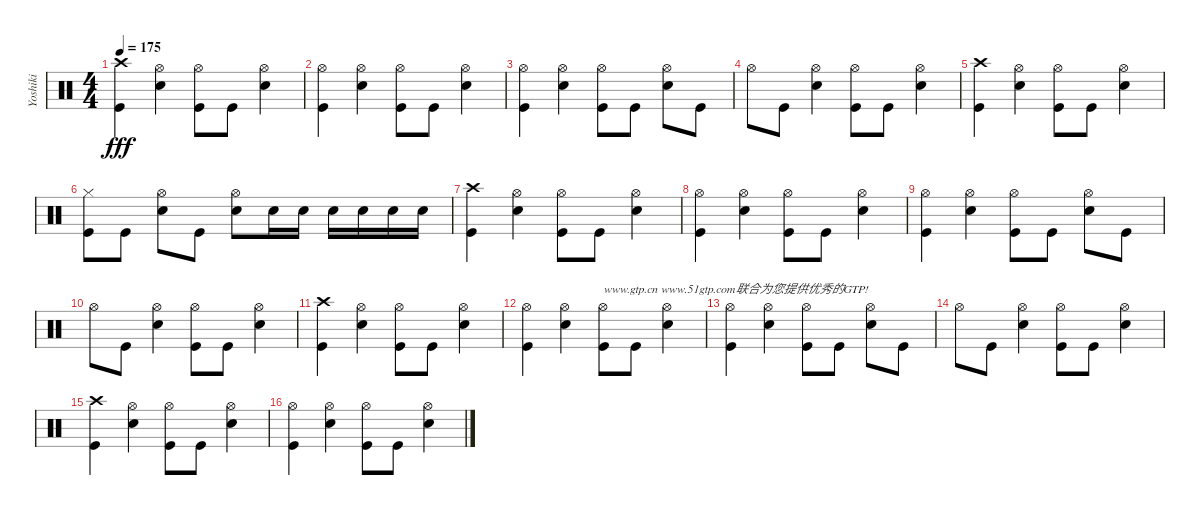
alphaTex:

\track ("Yoshiki" "Yoshiki") {instrument percussion}
\staff {score}
\articulation defaults
\ts (4 4)
\tempo 175
\clef neutral
\ks c
("Crash high (hit)" "Kick (hit)").4{dy fff} ("Hi-Hat (open)" "Snare (hit) 2").4 ("Hi-Hat (open)" "Kick (hit)").8 "Kick (hit)".8 ("Hi-Hat (open)" "Snare (hit) 2").4 |
("Hi-Hat (open)" "Kick (hit)").4 ("Hi-Hat (open)" "Snare (hit) 2").4 ("Hi-Hat (open)" "Kick (hit)").8 "Kick (hit)".8 ("Hi-Hat (open)" "Snare (hit) 2").4 |
("Hi-Hat (open)" "Kick (hit)").4 ("Hi-Hat (open)" "Snare (hit) 2").4 ("Hi-Hat (open)" "Kick (hit)").8 "Kick (hit)".8 ("Hi-Hat (open)" "Snare (hit) 2").8 "Kick (hit)".8 |
"Hi-Hat (open)".8 "Kick (hit)".8 ("Hi-Hat (open)" "Snare (hit) 2").4 ("Hi-Hat (open)" "Kick (hit)").8 "Kick (hit)".8 ("Hi-Hat (open)" "Snare (hit) 2").4 |
("Crash high (hit)" "Kick (hit)").4 ("Hi-Hat (open)" "Snare (hit) 2").4 ("Hi-Hat (open)" "Kick (hit)").8 "Kick (hit)".8 ("Hi-Hat (open)" "Snare (hit) 2").4 |
("Hi-Hat (closed)" "Kick (hit)").8 "Kick (hit)".8 ("Hi-Hat (open)" "Snare (hit) 2").8 "Kick (hit)".8 ("Hi-Hat (open)" "Snare (hit) 2").8 "Snare (hit) 2".16 "Snare (hit) 2".16 "Snare (hit) 2".16 "Snare (hit) 2".16 "Snare (hit) 2".16 "Snare (hit) 2".16 |
("Crash high (hit)" "Kick (hit)").4 ("Hi-Hat (open)" "Snare (hit) 2").4 ("Hi-Hat (open)" "Kick (hit)").8 "Kick (hit)".8 ("Hi-Hat (open)" "Snare (hit) 2").4 |
("Hi-Hat (open)" "Kick (hit)").4{txt " "} ("Hi-Hat (open)" "Snare (hit) 2").4 ("Hi-Hat (open)" "Kick (hit)").8 "Kick (hit)".8 ("Hi-Hat (open)" "Snare (hit) 2").4 |
("Hi-Hat (open)" "Kick (hit)").4 ("Hi-Hat (open)" "Snare (hit) 2").4 ("Hi-Hat (open)" "Kick (hit)").8 "Kick (hit)".8 ("Hi-Hat (open)" "Snare (hit) 2").8 "Kick (hit)".8 |
"Hi-Hat (open)".8 "Kick (hit)".8 ("Hi-Hat (open)" "Snare (hit) 2").4 ("Hi-Hat (open)" "Kick (hit)").8 "Kick (hit)".8 ("Hi-Hat (open)" "Snare (hit) 2").4 |
("Crash high (hit)" "Kick (hit)").4 ("Hi-Hat (open)" "Snare (hit) 2").4 ("Hi-Hat (open)" "Kick (hit)").8 "Kick (hit)".8 ("Hi-Hat (open)" "Snare (hit) 2").4 |
("Hi-Hat (open)" "Kick (hit)").4 ("Hi-Hat (open)" "Snare (hit) 2").4 ("Hi-Hat (open)" "Kick (hit)").8{txt "www.gtp.cn www.51gtp.com联合为您提供优秀的GTP!"} "Kick (hit)".8 ("Hi-Hat (open)" "Snare (hit) 2").4 |
("Hi-Hat (open)" "Kick (hit)").4 ("Hi-Hat (open)" "Snare (hit) 2").4 ("Hi-Hat (open)" "Kick (hit)").8 "Kick (hit)".8 ("Hi-Hat (open)" "Snare (hit) 2").8 "Kick (hit)".8 |
"Hi-Hat (open)".8 "Kick (hit)".8 ("Hi-Hat (open)" "Snare (hit) 2").4 ("Hi-Hat (open)" "Kick (hit)").8 "Kick (hit)".8 ("Hi-Hat (open)" "Snare (hit) 2").4 |
("Crash high (hit)" "Kick (hit)").4 ("Hi-Hat (open)" "Snare (hit) 2").4 ("Hi-Hat (open)" "Kick (hit)").8 "Kick (hit)".8 ("Hi-Hat (open)" "Snare (hit) 2").4 |
("Hi-Hat (open)" "Kick (hit)").4 ("Hi-Hat (open)" "Snare (hit) 2").4 ("Hi-Hat (open)" "Kick (hit)").8 "Kick (hit)".8 ("Hi-Hat (open)" "Snare (hit) 2").4
